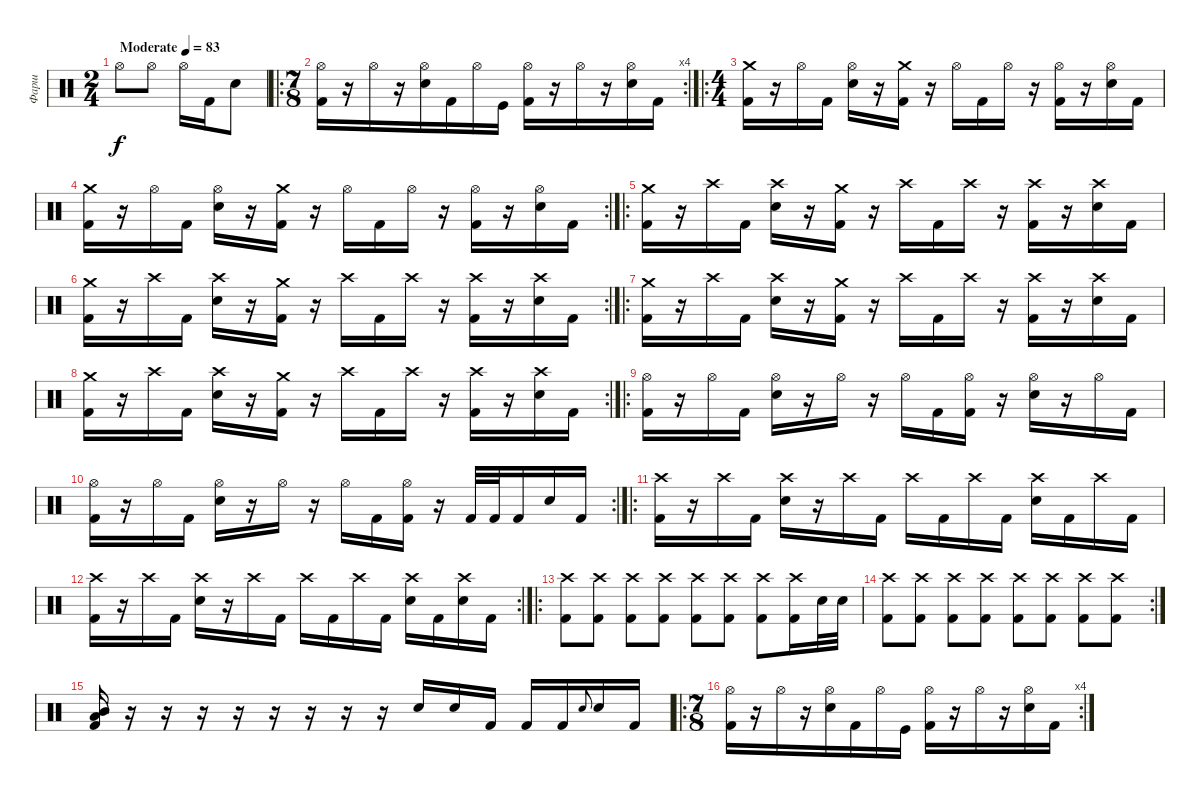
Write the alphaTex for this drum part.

\track ("Фарш" "Фарш") {instrument percussion}
\staff {score}
\articulation defaults
\ts (2 4)
\tempo (83 "Moderate")
\clef neutral
\ks c "Hi-Hat (open)".8{dy f} "Hi-Hat (open)".8 "Hi-Hat (open)".16 "Kick (hit) 2".16 "Electric Snare (hit)".8
|
\ro
\rc 4
\ts (7 8)
("Kick (hit) 2" "Hi-Hat (open)").16 r.16 "Hi-Hat (open)".16 r.16 ("Electric Snare (hit)" "Hi-Hat (open)").16 "Kick (hit) 2".16 "Hi-Hat (open)".16 "Kick (hit)".16 ("Kick (hit) 2" "Hi-Hat (open)").16 r.16 "Hi-Hat (open)".16 r.16 ("Electric Snare (hit)" "Hi-Hat (open)").16 "Kick (hit) 2".16 |
\ro
\ts (4 4)
("Crash medium (hit)" "Kick (hit) 2").16 r.16 "Hi-Hat (open)".16 "Kick (hit) 2".16 ("Hi-Hat (open)" "Electric Snare (hit)").16 r.16 ("Crash medium (hit)" "Kick (hit) 2").16 r.16 "Hi-Hat (open)".16 "Kick (hit) 2".16 "Hi-Hat (open)".16 r.16 ("Hi-Hat (open)" "Kick (hit) 2").16 r.16 ("Hi-Hat (open)" "Electric Snare (hit)").16 "Kick (hit) 2".16 |
\rc 2
("Crash medium (hit)" "Kick (hit) 2").16 r.16 "Hi-Hat (open)".16 "Kick (hit) 2".16 ("Hi-Hat (open)" "Electric Snare (hit)").16 r.16 ("Crash medium (hit)" "Kick (hit) 2").16 r.16 "Hi-Hat (open)".16 "Kick (hit) 2".16 "Hi-Hat (open)".16 r.16 ("Hi-Hat (open)" "Kick (hit) 2").16 r.16 ("Hi-Hat (open)" "Electric Snare (hit)").16 "Kick (hit) 2".16 |
\ro
("Crash medium (hit)" "Kick (hit) 2").16 r.16 "Crash high (hit)".16 "Kick (hit) 2".16 ("Crash high (hit)" "Electric Snare (hit)").16 r.16 ("Crash medium (hit)" "Kick (hit) 2").16 r.16 "Crash high (hit)".16 "Kick (hit) 2".16 "Crash high (hit)".16 r.16 ("Crash high (hit)" "Kick (hit) 2").16 r.16 ("Crash high (hit)" "Electric Snare (hit)").16 "Kick (hit) 2".16 |
\rc 2
("Crash medium (hit)" "Kick (hit) 2").16 r.16 "Crash high (hit)".16 "Kick (hit) 2".16 ("Crash high (hit)" "Electric Snare (hit)").16 r.16 ("Crash medium (hit)" "Kick (hit) 2").16 r.16 "Crash high (hit)".16 "Kick (hit) 2".16 "Crash high (hit)".16 r.16 ("Crash high (hit)" "Kick (hit) 2").16 r.16 ("Crash high (hit)" "Electric Snare (hit)").16 "Kick (hit) 2".16 |
\ro
("Crash medium (hit)" "Kick (hit) 2").16 r.16 "Crash high (hit)".16 "Kick (hit) 2".16 ("Crash high (hit)" "Electric Snare (hit)").16 r.16 ("Crash medium (hit)" "Kick (hit) 2").16 r.16 "Crash high (hit)".16 "Kick (hit) 2".16 "Crash high (hit)".16 r.16 ("Crash high (hit)" "Kick (hit) 2").16 r.16 ("Crash high (hit)" "Electric Snare (hit)").16 "Kick (hit) 2".16 |
\rc 2
("Crash medium (hit)" "Kick (hit) 2").16 r.16 "Crash high (hit)".16 "Kick (hit) 2".16 ("Crash high (hit)" "Electric Snare (hit)").16 r.16 ("Crash medium (hit)" "Kick (hit) 2").16 r.16 "Crash high (hit)".16 "Kick (hit) 2".16 "Crash high (hit)".16 r.16 ("Crash high (hit)" "Kick (hit) 2").16 r.16 ("Crash high (hit)" "Electric Snare (hit)").16 "Kick (hit) 2".16 |
\ro
("Hi-Hat (open)" "Kick (hit) 2").16 r.16 "Hi-Hat (open)".16 "Kick (hit) 2".16 ("Hi-Hat (open)" "Electric Snare (hit)").16 r.16 "Hi-Hat (open)".16 r.16 "Hi-Hat (open)".16 "Kick (hit) 2".16 ("Hi-Hat (open)" "Kick (hit) 2").16 r.16 ("Hi-Hat (open)" "Electric Snare (hit)").16 r.16 "Hi-Hat (open)".16 "Kick (hit) 2".16 |
\rc 2
("Hi-Hat (open)" "Kick (hit) 2").16 r.16 "Hi-Hat (open)".16 "Kick (hit) 2".16 ("Hi-Hat (open)" "Electric Snare (hit)").16 r.16 "Hi-Hat (open)".16 r.16 "Hi-Hat (open)".16 "Kick (hit) 2".16 ("Hi-Hat (open)" "Kick (hit) 2").16 r.16 "Kick (hit) 2".32 "Kick (hit) 2".32 "Kick (hit) 2".16 "Electric Snare (hit)".16 "Kick (hit) 2".16 |
\ro
("Crash high (hit)" "Kick (hit) 2").16 r.16 "Crash high (hit)".16 "Kick (hit) 2".16 ("Crash high (hit)" "Electric Snare (hit)").16 r.16 "Crash high (hit)".16 "Kick (hit) 2".16 "Crash high (hit)".16 "Kick (hit) 2".16 "Crash high (hit)".16 "Kick (hit) 2".16 ("Crash high (hit)" "Electric Snare (hit)").16 "Kick (hit) 2".16 "Crash high (hit)".16 "Kick (hit) 2".16 |
\rc 2
("Crash high (hit)" "Kick (hit) 2").16 r.16 "Crash high (hit)".16 "Kick (hit) 2".16 ("Crash high (hit)" "Electric Snare (hit)").16 r.16 "Crash high (hit)".16 "Kick (hit) 2".16 "Crash high (hit)".16 "Kick (hit) 2".16 "Crash high (hit)".16 "Kick (hit) 2".16 ("Crash high (hit)" "Electric Snare (hit)").16 "Kick (hit) 2".16 ("Crash high (hit)" "Electric Snare (hit)").16 "Kick (hit) 2".16 |
\ro
("Kick (hit) 2" "Crash high (hit)").8 ("Kick (hit) 2" "Crash high (hit)").8 ("Kick (hit) 2" "Crash high (hit)").8 ("Kick (hit) 2" "Crash high (hit)").8 ("Kick (hit) 2" "Crash high (hit)").8 ("Kick (hit) 2" "Crash high (hit)").8 ("Kick (hit) 2" "Crash high (hit)").8 ("Kick (hit) 2" "Crash high (hit)").16 "Electric Snare (hit)".32 "Electric Snare (hit)".32 |
\rc 2
("Kick (hit) 2" "Crash high (hit)").8 ("Kick (hit) 2" "Crash high (hit)").8 ("Kick (hit) 2" "Crash high (hit)").8 ("Kick (hit) 2" "Crash high (hit)").8 ("Kick (hit) 2" "Crash high (hit)").8 ("Kick (hit) 2" "Crash high (hit)").8 ("Kick (hit) 2" "Crash high (hit)").8 ("Kick (hit) 2" "Crash high (hit)").8 |
("Kick (hit) 2" "Low Tom (hit)" "Mid Tom (hit)").16 r.16 r.16 r.16 r.16 r.16 r.16 r.16 r.16 "Electric Snare (hit)".16 "Electric Snare (hit)".16 "Kick (hit) 2".16 "Kick (hit) 2".16 "Kick (hit) 2".16 "Electric Snare (hit)".8{gr onbeat} "Electric Snare (hit)".16 "Kick (hit) 2".16 |
\ro
\rc 4
\ts (7 8)
("Kick (hit) 2" "Hi-Hat (open)").16 r.16 "Hi-Hat (open)".16 r.16 ("Electric Snare (hit)" "Hi-Hat (open)").16 "Kick (hit) 2".16 "Hi-Hat (open)".16 "Kick (hit)".16 ("Kick (hit) 2" "Hi-Hat (open)").16 r.16 "Hi-Hat (open)".16 r.16 ("Electric Snare (hit)" "Hi-Hat (open)").16 "Kick (hit) 2".16
